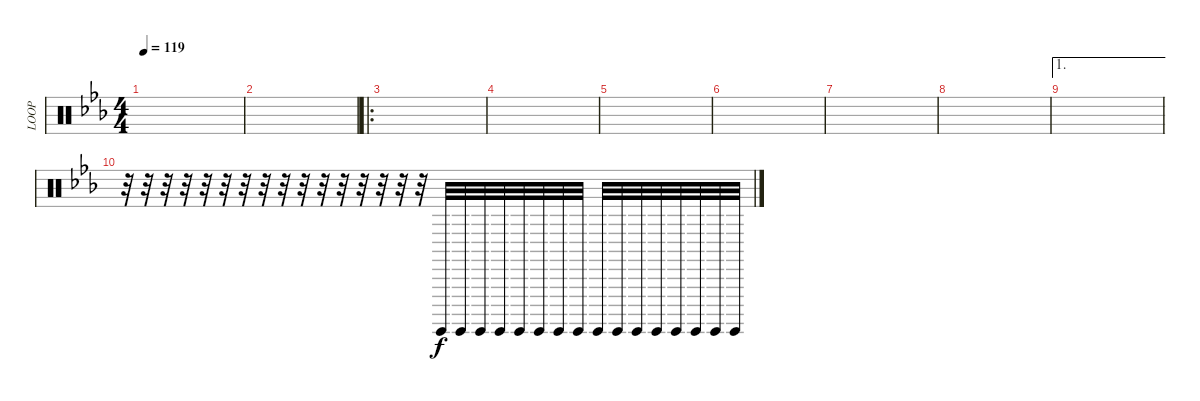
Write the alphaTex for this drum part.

\track ("LOOP" "LOOP") {instrument percussion}
\staff {score}
\articulation defaults
\ts (4 4)
\tempo 119
\clef neutral
\ks eb
|
|
\ro
|
|
|
|
|
|
\ae 1
|
r.32 r.32 r.32 r.32 r.32 r.32 r.32 r.32 r.32 r.32 r.32 r.32 r.32 r.32 r.32 r.32 "Surdo (hit)".32{volume 11} "Surdo (hit)".32 "Surdo (hit)".32 "Surdo (hit)".32 "Surdo (hit)".32 "Surdo (hit)".32 "Surdo (hit)".32 "Surdo (hit)".32 "Surdo (hit)".32 "Surdo (hit)".32 "Surdo (hit)".32 "Surdo (hit)".32 "Surdo (hit)".32 "Surdo (hit)".32 "Surdo (hit)".32 "Surdo (hit)".32
